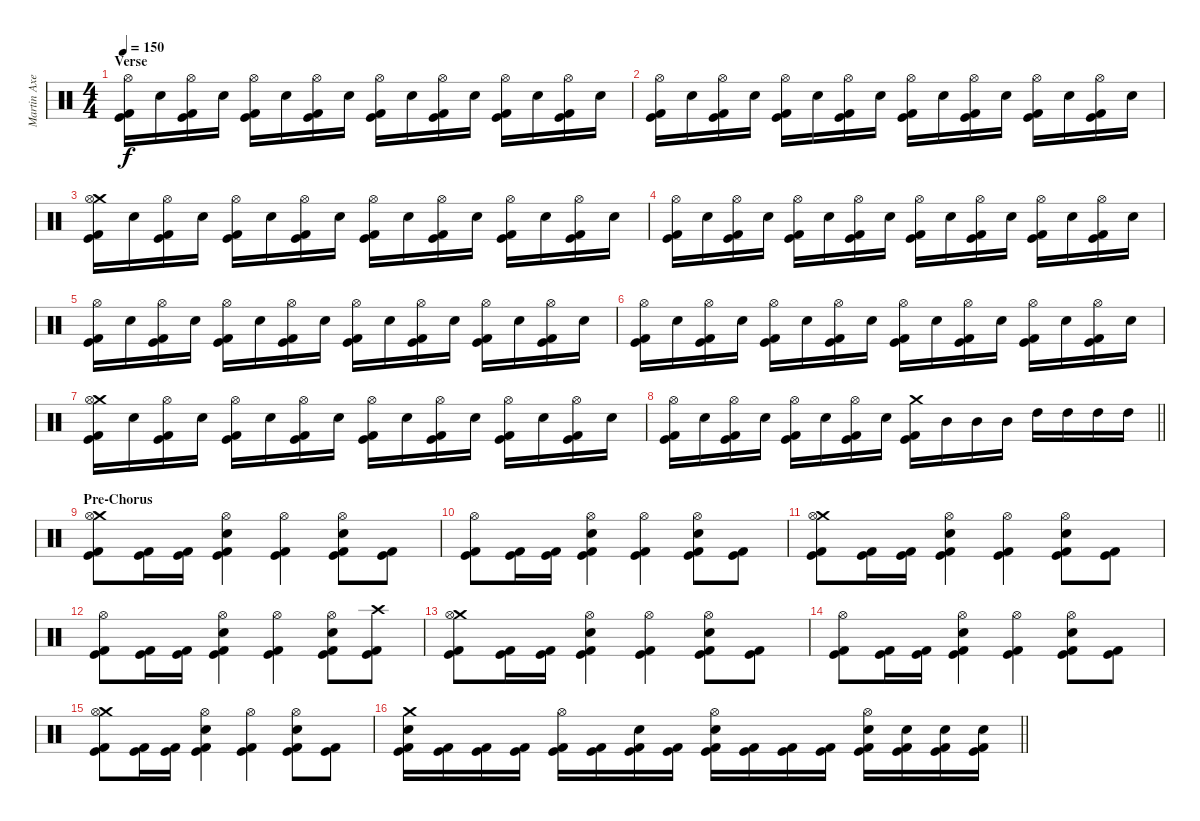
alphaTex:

\track ("Martin Axenrot" "Martin Axe") {instrument percussion}
\staff {score}
\articulation defaults
\ts (4 4)
\section ("" "Verse")
\tempo 150
\clef neutral
\ks c
("Hi-Hat (open)" "Kick (hit) 2" "Kick (hit)").16{dy f} "Electric Snare (hit)".16 ("Hi-Hat (open)" "Kick (hit) 2" "Kick (hit)").16 "Electric Snare (hit)".16 ("Hi-Hat (open)" "Kick (hit) 2" "Kick (hit)").16 "Electric Snare (hit)".16 ("Hi-Hat (open)" "Kick (hit) 2" "Kick (hit)").16 "Electric Snare (hit)".16 ("Hi-Hat (open)" "Kick (hit) 2" "Kick (hit)").16 "Electric Snare (hit)".16 ("Hi-Hat (open)" "Kick (hit) 2" "Kick (hit)").16 "Electric Snare (hit)".16 ("Hi-Hat (open)" "Kick (hit) 2" "Kick (hit)").16 "Electric Snare (hit)".16 ("Hi-Hat (open)" "Kick (hit) 2" "Kick (hit)").16 "Electric Snare (hit)".16 |
("Hi-Hat (open)" "Kick (hit) 2" "Kick (hit)").16 "Electric Snare (hit)".16 ("Hi-Hat (open)" "Kick (hit) 2" "Kick (hit)").16 "Electric Snare (hit)".16 ("Hi-Hat (open)" "Kick (hit) 2" "Kick (hit)").16 "Electric Snare (hit)".16 ("Hi-Hat (open)" "Kick (hit) 2" "Kick (hit)").16 "Electric Snare (hit)".16 ("Hi-Hat (open)" "Kick (hit) 2" "Kick (hit)").16 "Electric Snare (hit)".16 ("Hi-Hat (open)" "Kick (hit) 2" "Kick (hit)").16 "Electric Snare (hit)".16 ("Hi-Hat (open)" "Kick (hit) 2" "Kick (hit)").16 "Electric Snare (hit)".16 ("Hi-Hat (open)" "Kick (hit) 2" "Kick (hit)").16 "Electric Snare (hit)".16 |
("Crash medium (hit)" "Hi-Hat (open)" "Kick (hit) 2" "Kick (hit)").16 "Electric Snare (hit)".16 ("Hi-Hat (open)" "Kick (hit) 2" "Kick (hit)").16 "Electric Snare (hit)".16 ("Hi-Hat (open)" "Kick (hit) 2" "Kick (hit)").16 "Electric Snare (hit)".16 ("Hi-Hat (open)" "Kick (hit) 2" "Kick (hit)").16 "Electric Snare (hit)".16 ("Hi-Hat (open)" "Kick (hit) 2" "Kick (hit)").16 "Electric Snare (hit)".16 ("Hi-Hat (open)" "Kick (hit) 2" "Kick (hit)").16 "Electric Snare (hit)".16 ("Hi-Hat (open)" "Kick (hit) 2" "Kick (hit)").16 "Electric Snare (hit)".16 ("Hi-Hat (open)" "Kick (hit) 2" "Kick (hit)").16 "Electric Snare (hit)".16 |
("Hi-Hat (open)" "Kick (hit) 2" "Kick (hit)").16 "Electric Snare (hit)".16 ("Hi-Hat (open)" "Kick (hit) 2" "Kick (hit)").16 "Electric Snare (hit)".16 ("Hi-Hat (open)" "Kick (hit) 2" "Kick (hit)").16 "Electric Snare (hit)".16 ("Hi-Hat (open)" "Kick (hit) 2" "Kick (hit)").16 "Electric Snare (hit)".16 ("Hi-Hat (open)" "Kick (hit) 2" "Kick (hit)").16 "Electric Snare (hit)".16 ("Hi-Hat (open)" "Kick (hit) 2" "Kick (hit)").16 "Electric Snare (hit)".16 ("Hi-Hat (open)" "Kick (hit) 2" "Kick (hit)").16 "Electric Snare (hit)".16 ("Hi-Hat (open)" "Kick (hit) 2" "Kick (hit)").16 "Electric Snare (hit)".16 |
("Hi-Hat (open)" "Kick (hit) 2" "Kick (hit)").16 "Electric Snare (hit)".16 ("Hi-Hat (open)" "Kick (hit) 2" "Kick (hit)").16 "Electric Snare (hit)".16 ("Hi-Hat (open)" "Kick (hit) 2" "Kick (hit)").16 "Electric Snare (hit)".16 ("Hi-Hat (open)" "Kick (hit) 2" "Kick (hit)").16 "Electric Snare (hit)".16 ("Hi-Hat (open)" "Kick (hit) 2" "Kick (hit)").16 "Electric Snare (hit)".16 ("Hi-Hat (open)" "Kick (hit) 2" "Kick (hit)").16 "Electric Snare (hit)".16 ("Hi-Hat (open)" "Kick (hit) 2" "Kick (hit)").16 "Electric Snare (hit)".16 ("Hi-Hat (open)" "Kick (hit) 2" "Kick (hit)").16 "Electric Snare (hit)".16 |
("Hi-Hat (open)" "Kick (hit) 2" "Kick (hit)").16 "Electric Snare (hit)".16 ("Hi-Hat (open)" "Kick (hit) 2" "Kick (hit)").16 "Electric Snare (hit)".16 ("Hi-Hat (open)" "Kick (hit) 2" "Kick (hit)").16 "Electric Snare (hit)".16 ("Hi-Hat (open)" "Kick (hit) 2" "Kick (hit)").16 "Electric Snare (hit)".16 ("Hi-Hat (open)" "Kick (hit) 2" "Kick (hit)").16 "Electric Snare (hit)".16 ("Hi-Hat (open)" "Kick (hit) 2" "Kick (hit)").16 "Electric Snare (hit)".16 ("Hi-Hat (open)" "Kick (hit) 2" "Kick (hit)").16 "Electric Snare (hit)".16 ("Hi-Hat (open)" "Kick (hit) 2" "Kick (hit)").16 "Electric Snare (hit)".16 |
("Crash medium (hit)" "Hi-Hat (open)" "Kick (hit) 2" "Kick (hit)").16 "Electric Snare (hit)".16 ("Hi-Hat (open)" "Kick (hit) 2" "Kick (hit)").16 "Electric Snare (hit)".16 ("Hi-Hat (open)" "Kick (hit) 2" "Kick (hit)").16 "Electric Snare (hit)".16 ("Hi-Hat (open)" "Kick (hit) 2" "Kick (hit)").16 "Electric Snare (hit)".16 ("Hi-Hat (open)" "Kick (hit) 2" "Kick (hit)").16 "Electric Snare (hit)".16 ("Hi-Hat (open)" "Kick (hit) 2" "Kick (hit)").16 "Electric Snare (hit)".16 ("Hi-Hat (open)" "Kick (hit) 2" "Kick (hit)").16 "Electric Snare (hit)".16 ("Hi-Hat (open)" "Kick (hit) 2" "Kick (hit)").16 "Electric Snare (hit)".16 |
\barLineRight lightlight
("Hi-Hat (open)" "Kick (hit) 2" "Kick (hit)").16 "Electric Snare (hit)".16 ("Hi-Hat (open)" "Kick (hit) 2" "Kick (hit)").16 "Electric Snare (hit)".16 ("Hi-Hat (open)" "Kick (hit) 2" "Kick (hit)").16 "Electric Snare (hit)".16 ("Hi-Hat (open)" "Kick (hit) 2" "Kick (hit)").16 "Electric Snare (hit)".16 ("Crash medium (hit)" "Kick (hit) 2" "Kick (hit)").16 "Mid Tom (hit)".16 "Mid Tom (hit)".16 "Mid Tom (hit)".16 "High Tom (hit)".16 "High Tom (hit)".16 "High Tom (hit)".16 "High Tom (hit)".16 |
\section ("" "Pre-Chorus")
("Crash medium (hit)" "Hi-Hat (open)" "Kick (hit) 2" "Kick (hit)").8 ("Kick (hit) 2" "Kick (hit)").16 ("Kick (hit) 2" "Kick (hit)").16 ("Hi-Hat (open)" "Electric Snare (hit)" "Kick (hit) 2" "Kick (hit)").4 ("Hi-Hat (open)" "Kick (hit) 2" "Kick (hit)").4 ("Hi-Hat (open)" "Electric Snare (hit)" "Kick (hit) 2" "Kick (hit)").8 ("Kick (hit) 2" "Kick (hit)").8 |
("Hi-Hat (open)" "Kick (hit) 2" "Kick (hit)").8 ("Kick (hit) 2" "Kick (hit)").16 ("Kick (hit) 2" "Kick (hit)").16 ("Hi-Hat (open)" "Electric Snare (hit)" "Kick (hit) 2" "Kick (hit)").4 ("Hi-Hat (open)" "Kick (hit) 2" "Kick (hit)").4 ("Hi-Hat (open)" "Electric Snare (hit)" "Kick (hit) 2" "Kick (hit)").8 ("Kick (hit) 2" "Kick (hit)").8 |
("Crash medium (hit)" "Hi-Hat (open)" "Kick (hit) 2" "Kick (hit)").8 ("Kick (hit) 2" "Kick (hit)").16 ("Kick (hit) 2" "Kick (hit)").16 ("Hi-Hat (open)" "Electric Snare (hit)" "Kick (hit) 2" "Kick (hit)").4 ("Hi-Hat (open)" "Kick (hit) 2" "Kick (hit)").4 ("Hi-Hat (open)" "Electric Snare (hit)" "Kick (hit) 2" "Kick (hit)").8 ("Kick (hit) 2" "Kick (hit)").8 |
("Hi-Hat (open)" "Kick (hit) 2" "Kick (hit)").8 ("Kick (hit) 2" "Kick (hit)").16 ("Kick (hit) 2" "Kick (hit)").16 ("Hi-Hat (open)" "Electric Snare (hit)" "Kick (hit) 2" "Kick (hit)").4 ("Hi-Hat (open)" "Kick (hit) 2" "Kick (hit)").4 ("Hi-Hat (open)" "Electric Snare (hit)" "Kick (hit) 2" "Kick (hit)").8 ("Crash high (hit)" "Kick (hit) 2" "Kick (hit)").8 |
("Crash medium (hit)" "Hi-Hat (open)" "Kick (hit) 2" "Kick (hit)").8 ("Kick (hit) 2" "Kick (hit)").16 ("Kick (hit) 2" "Kick (hit)").16 ("Hi-Hat (open)" "Electric Snare (hit)" "Kick (hit) 2" "Kick (hit)").4 ("Hi-Hat (open)" "Kick (hit) 2" "Kick (hit)").4 ("Hi-Hat (open)" "Electric Snare (hit)" "Kick (hit) 2" "Kick (hit)").8 ("Kick (hit) 2" "Kick (hit)").8 |
("Hi-Hat (open)" "Kick (hit) 2" "Kick (hit)").8 ("Kick (hit) 2" "Kick (hit)").16 ("Kick (hit) 2" "Kick (hit)").16 ("Hi-Hat (open)" "Electric Snare (hit)" "Kick (hit) 2" "Kick (hit)").4 ("Hi-Hat (open)" "Kick (hit) 2" "Kick (hit)").4 ("Hi-Hat (open)" "Electric Snare (hit)" "Kick (hit) 2" "Kick (hit)").8 ("Kick (hit) 2" "Kick (hit)").8 |
("Crash medium (hit)" "Hi-Hat (open)" "Kick (hit) 2" "Kick (hit)").8 ("Kick (hit) 2" "Kick (hit)").16 ("Kick (hit) 2" "Kick (hit)").16 ("Hi-Hat (open)" "Electric Snare (hit)" "Kick (hit) 2" "Kick (hit)").4 ("Hi-Hat (open)" "Kick (hit) 2" "Kick (hit)").4 ("Hi-Hat (open)" "Electric Snare (hit)" "Kick (hit) 2" "Kick (hit)").8 ("Kick (hit) 2" "Kick (hit)").8 |
\barLineRight lightlight
("Crash medium (hit)" "Electric Snare (hit)" "Kick (hit) 2" "Kick (hit)").16 ("Kick (hit) 2" "Kick (hit)").16 ("Kick (hit) 2" "Kick (hit)").16 ("Kick (hit) 2" "Kick (hit)").16 ("Hi-Hat (open)" "Kick (hit) 2" "Kick (hit)").16 ("Kick (hit) 2" "Kick (hit)").16 ("Electric Snare (hit)" "Kick (hit) 2" "Kick (hit)").16 ("Kick (hit) 2" "Kick (hit)").16 ("Hi-Hat (open)" "Electric Snare (hit)" "Kick (hit) 2" "Kick (hit)").16 ("Kick (hit) 2" "Kick (hit)").16 ("Kick (hit) 2" "Kick (hit)").16 ("Kick (hit) 2" "Kick (hit)").16 ("Hi-Hat (open)" "Electric Snare (hit)" "Kick (hit) 2" "Kick (hit)").16 ("Electric Snare (hit)" "Kick (hit) 2" "Kick (hit)").16 ("Electric Snare (hit)" "Kick (hit) 2" "Kick (hit)").16 ("Electric Snare (hit)" "Kick (hit) 2" "Kick (hit)").16
